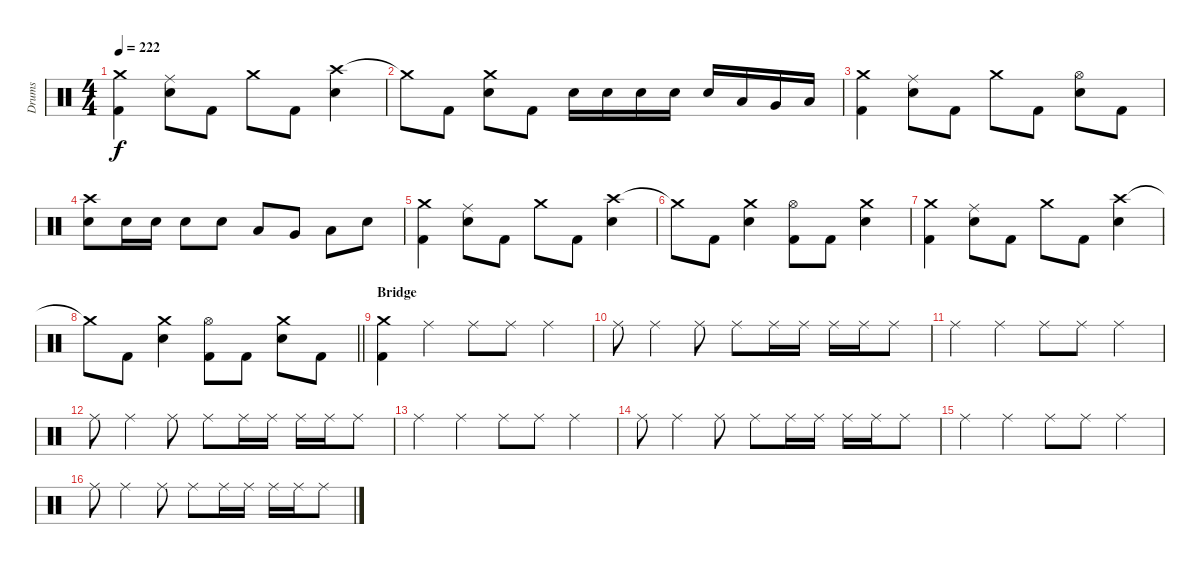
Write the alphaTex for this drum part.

\track ("Drums" "Drums") {instrument percussion}
\staff {score}
\articulation defaults
\ts (4 4)
\tempo 222
\clef neutral
\ks c
("Crash medium (hit)" "Kick (hit) 2").4{dy f} ("Ride (middle)" "Electric Snare (hit)").8 "Kick (hit) 2".8 "Crash medium (hit)".8 "Kick (hit) 2".8 ("Crash high (hit)" "Electric Snare (hit)").4 |
"Crash medium (hit)"{t}.8 "Kick (hit) 2".8 ("Crash medium (hit)" "Electric Snare (hit)").8 "Kick (hit) 2".8 "Electric Snare (hit)".16 "Electric Snare (hit)".16 "Electric Snare (hit)".16 "Electric Snare (hit)".16 "Electric Snare (hit)".16 "Low Tom (hit)".16 "Very Low Tom (hit)".16 "Low Floor Tom (hit)".16 |
("Crash medium (hit)" "Kick (hit) 2").4 ("Ride (middle)" "Electric Snare (hit)").8 "Kick (hit) 2".8 "Crash medium (hit)".8 "Kick (hit) 2".8 ("Hi-Hat (open)" "Electric Snare (hit)").8 "Kick (hit) 2".8 |
("Crash high (hit)" "Electric Snare (hit)").8 "Electric Snare (hit)".16 "Electric Snare (hit)".16 "Electric Snare (hit)".8 "Electric Snare (hit)".8 "Low Tom (hit)".8 "Very Low Tom (hit)".8 "Low Floor Tom (hit)".8 "Electric Snare (hit)".8 |
("Crash medium (hit)" "Kick (hit) 2").4 ("Ride (middle)" "Electric Snare (hit)").8 "Kick (hit) 2".8 "Crash medium (hit)".8 "Kick (hit) 2".8 ("Crash high (hit)" "Electric Snare (hit)").4 |
"Crash medium (hit)"{t}.8 "Kick (hit) 2".8 ("Crash medium (hit)" "Electric Snare (hit)").4 ("Hi-Hat (open)" "Kick (hit) 2").8 "Kick (hit) 2".8 ("Crash medium (hit)" "Electric Snare (hit)").4 |
("Crash medium (hit)" "Kick (hit) 2").4 ("Ride (middle)" "Electric Snare (hit)").8 "Kick (hit) 2".8 "Crash medium (hit)".8 "Kick (hit) 2".8 ("Crash high (hit)" "Electric Snare (hit)").4 |
\barLineRight lightlight "Crash medium (hit)"{t}.8 "Kick (hit) 2".8
("Crash medium (hit)" "Electric Snare (hit)").4 ("Hi-Hat (open)" "Kick (hit) 2").8 "Kick (hit) 2".8 ("Crash medium (hit)" "Electric Snare (hit)").8 "Kick (hit) 2".8 |
\section ("" "Bridge")
("Crash medium (hit)" "Kick (hit) 2").4 "Ride (middle)".4 "Ride (middle)".8 "Ride (middle)".8{volume 9} "Ride (middle)".4 |
"Ride (middle)".8 "Ride (middle)".4 "Ride (middle)".8 "Ride (middle)".8 "Ride (middle)".16 "Ride (middle)".16 "Ride (middle)".16 "Ride (middle)".16 "Ride (middle)".8 |
"Ride (middle)".4 "Ride (middle)".4 "Ride (middle)".8 "Ride (middle)".8 "Ride (middle)".4 |
"Ride (middle)".8 "Ride (middle)".4 "Ride (middle)".8 "Ride (middle)".8 "Ride (middle)".16 "Ride (middle)".16 "Ride (middle)".16 "Ride (middle)".16 "Ride (middle)".8 |
"Ride (middle)".4 "Ride (middle)".4 "Ride (middle)".8 "Ride (middle)".8 "Ride (middle)".4 |
"Ride (middle)".8 "Ride (middle)".4 "Ride (middle)".8 "Ride (middle)".8 "Ride (middle)".16 "Ride (middle)".16 "Ride (middle)".16 "Ride (middle)".16 "Ride (middle)".8 |
"Ride (middle)".4 "Ride (middle)".4 "Ride (middle)".8 "Ride (middle)".8 "Ride (middle)".4 |
"Ride (middle)".8 "Ride (middle)".4 "Ride (middle)".8 "Ride (middle)".8 "Ride (middle)".16 "Ride (middle)".16 "Ride (middle)".16 "Ride (middle)".16 "Ride (middle)".8
